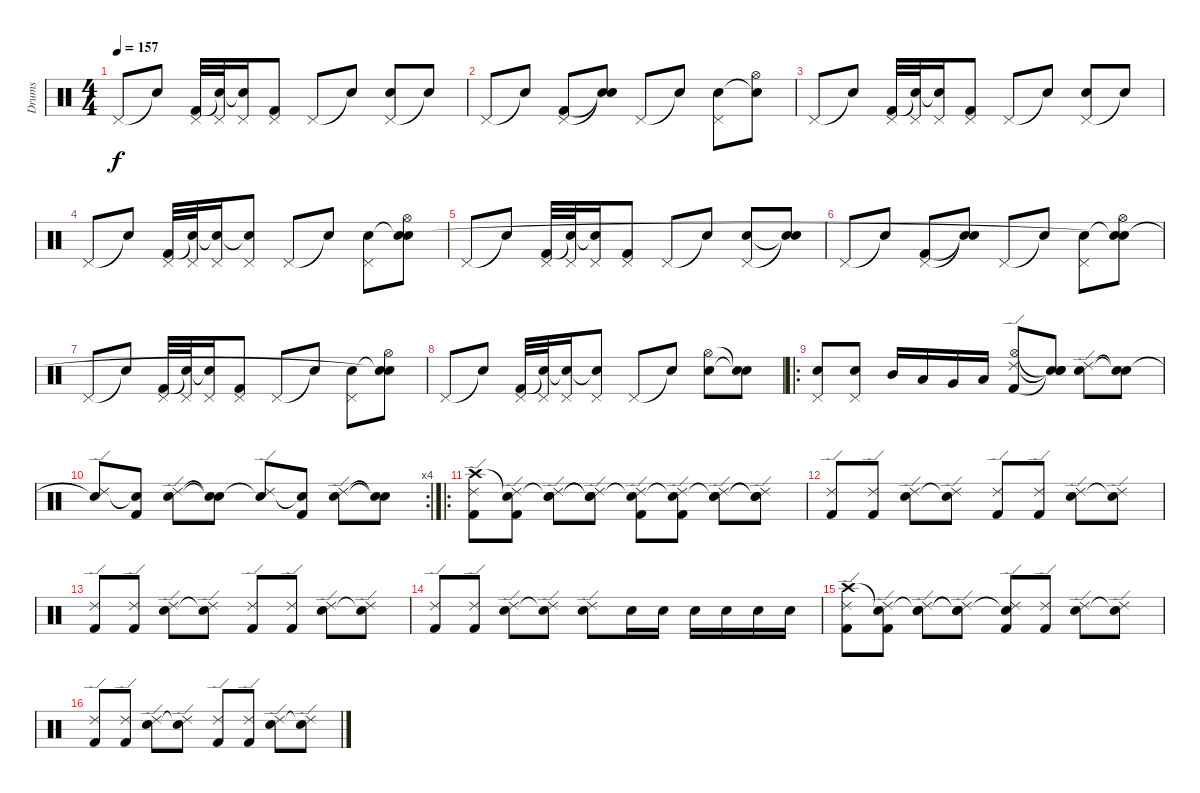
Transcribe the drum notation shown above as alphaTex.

\track ("Drums" "Drums") {instrument percussion}
\staff {score}
\articulation defaults
\ts (4 4)
\tempo 157
\clef neutral
\ks c "Pedal Hi-Hat (hit)".8{dy f} "Snare (hit)"{t}.8
("Pedal Hi-Hat (hit)" "Kick (hit) 2").32 ("Pedal Hi-Hat (hit)" "Snare (hit)"{t}).32 ("Pedal Hi-Hat (hit)" "Snare (hit)"{t}).16 ("Pedal Hi-Hat (hit)" "Kick (hit) 2").8 "Pedal Hi-Hat (hit)".8 "Snare (hit)"{t}.8 ("Pedal Hi-Hat (hit)" "Snare (hit) 2").8 "Snare (hit)"{t}.8 |
"Pedal Hi-Hat (hit)".8 "Snare (hit)"{t}.8 ("Pedal Hi-Hat (hit)" "Kick (hit) 2").8 ("Snare (hit)"{t} "Snare (hit)"{t}).8 "Pedal Hi-Hat (hit)".8 "Snare (hit)"{t}.8 ("Pedal Hi-Hat (hit)" "Snare (hit) 2").8 ("Hi-Hat (open)" "Snare (hit)"{t}).8 |
"Pedal Hi-Hat (hit)".8 "Snare (hit)"{t}.8 ("Pedal Hi-Hat (hit)" "Kick (hit) 2").32 ("Pedal Hi-Hat (hit)" "Snare (hit)"{t}).32 ("Pedal Hi-Hat (hit)" "Snare (hit)"{t}).16 ("Pedal Hi-Hat (hit)" "Kick (hit) 2").8 "Pedal Hi-Hat (hit)".8 "Snare (hit)"{t}.8 ("Pedal Hi-Hat (hit)" "Snare (hit) 2").8 "Snare (hit)"{t}.8 |
"Pedal Hi-Hat (hit)".8 "Snare (hit)"{t}.8 ("Pedal Hi-Hat (hit)" "Kick (hit) 2").32 ("Pedal Hi-Hat (hit)" "Snare (hit)"{t}).32 ("Pedal Hi-Hat (hit)" "Snare (hit)"{t}).16 ("Pedal Hi-Hat (hit)" "Snare (hit)"{t}).8 "Pedal Hi-Hat (hit)".8 "Snare (hit)"{t}.8 ("Pedal Hi-Hat (hit)" "Snare (hit) 2").8 ("Hi-Hat (open)" "Snare (hit)"{t} "Snare (hit)").8 |
"Pedal Hi-Hat (hit)".8 "Snare (hit)"{t}.8 ("Pedal Hi-Hat (hit)" "Kick (hit) 2").32 ("Pedal Hi-Hat (hit)" "Snare (hit)"{t}).32 ("Pedal Hi-Hat (hit)" "Snare (hit)"{t}).16 ("Pedal Hi-Hat (hit)" "Kick (hit) 2").8 "Pedal Hi-Hat (hit)".8 "Snare (hit)"{t}.8 ("Pedal Hi-Hat (hit)" "Snare (hit) 2").8 ("Snare (hit)"{t} "Snare (hit)"{t}).8 |
"Pedal Hi-Hat (hit)".8 "Snare (hit)"{t}.8 ("Pedal Hi-Hat (hit)" "Kick (hit) 2").8 ("Snare (hit)"{t} "Snare (hit)"{t}).8 "Pedal Hi-Hat (hit)".8 "Snare (hit)"{t}.8 ("Pedal Hi-Hat (hit)" "Snare (hit) 2").8 ("Hi-Hat (open)" "Snare (hit)"{t} "Snare (hit)"{t}).8 |
"Pedal Hi-Hat (hit)".8 "Snare (hit)"{t}.8 ("Pedal Hi-Hat (hit)" "Kick (hit) 2").32 ("Pedal Hi-Hat (hit)" "Snare (hit)"{t}).32 ("Pedal Hi-Hat (hit)" "Snare (hit)"{t}).16 ("Pedal Hi-Hat (hit)" "Kick (hit) 2").8 "Pedal Hi-Hat (hit)".8 "Snare (hit)"{t}.8 ("Pedal Hi-Hat (hit)" "Snare (hit) 2").8 ("Hi-Hat (open)" "Snare (hit)"{t} "Snare (hit)"{t}).8 |
"Pedal Hi-Hat (hit)".8 "Snare (hit)"{t}.8 ("Pedal Hi-Hat (hit)" "Kick (hit) 2").32 ("Pedal Hi-Hat (hit)" "Snare (hit)"{t}).32 ("Pedal Hi-Hat (hit)" "Snare (hit)"{t}).16 ("Pedal Hi-Hat (hit)" "Snare (hit)"{t}).8 "Pedal Hi-Hat (hit)".8 "Snare (hit)"{t}.8 ("Hi-Hat (open)" "Snare (hit) 2").8 ("Snare (hit)"{t} "Snare (hit)"{t}).8 |
\ro
("Pedal Hi-Hat (hit)" "Snare (hit) 2").8 ("Pedal Hi-Hat (hit)" "Snare (hit) 2").8 "Mid Tom (hit)".16 "Low Tom (hit)".16 "Very Low Tom (hit)".16 "Low Floor Tom (hit)".16 ("Hi-Hat (open)" "Ride (edge) 2" "Kick (hit) 2").8 ("Snare (hit)"{t} "Snare (hit)"{t} "Snare (hit)"{t}).8 ("Ride (edge) 2" "Snare (hit) 2").8 ("Snare (hit)"{t} "Snare (hit)"{t}).8 |
\rc 4
("Ride (edge) 2" "Snare (hit)"{t}).8 ("Snare (hit)"{t} "Kick (hit) 2").8 ("Ride (edge) 2" "Snare (hit) 2").8 ("Snare (hit)"{t} "Snare (hit)"{t}).8 ("Ride (edge) 2" "Snare (hit)"{t}).8 ("Snare (hit)"{t} "Kick (hit) 2").8 ("Ride (edge) 2" "Snare (hit) 2").8 ("Snare (hit)"{t} "Snare (hit)"{t}).8 |
\ro
("Crash high (hit)" "Ride (edge) 2" "Kick (hit) 2").8 ("Snare (hit)"{t} "Ride (edge) 2" "Kick (hit) 2").8 ("Snare (hit)"{t} "Ride (edge) 2" "Electric Snare (hit)").8 ("Snare (hit)"{t} "Ride (edge) 2" "Snare (hit)"{t}).8 ("Snare (hit)"{t} "Ride (edge) 2" "Kick (hit) 2").8 ("Snare (hit)"{t} "Ride (edge) 2" "Kick (hit) 2").8 ("Snare (hit)"{t} "Ride (edge) 2" "Electric Snare (hit)").8 ("Snare (hit)"{t} "Ride (edge) 2" "Snare (hit)"{t}).8 |
("Ride (edge) 2" "Kick (hit) 2").8 ("Ride (edge) 2" "Kick (hit) 2").8 ("Ride (edge) 2" "Electric Snare (hit)").8 ("Ride (edge) 2" "Snare (hit)"{t}).8 ("Ride (edge) 2" "Kick (hit) 2").8 ("Ride (edge) 2" "Kick (hit) 2").8 ("Ride (edge) 2" "Electric Snare (hit)").8 ("Ride (edge) 2" "Snare (hit)"{t}).8 |
("Ride (edge) 2" "Kick (hit) 2").8 ("Ride (edge) 2" "Kick (hit) 2").8 ("Ride (edge) 2" "Electric Snare (hit)").8 ("Ride (edge) 2" "Snare (hit)"{t}).8 ("Ride (edge) 2" "Kick (hit) 2").8 ("Ride (edge) 2" "Kick (hit) 2").8 ("Ride (edge) 2" "Electric Snare (hit)").8 ("Ride (edge) 2" "Snare (hit)"{t}).8 |
("Ride (edge) 2" "Kick (hit) 2").8 ("Ride (edge) 2" "Kick (hit) 2").8 ("Ride (edge) 2" "Electric Snare (hit)").8 ("Ride (edge) 2" "Snare (hit)"{t}).8 ("Ride (edge) 2" "Electric Snare (hit)").8 "Electric Snare (hit)".16 "Electric Snare (hit)".16 "Electric Snare (hit)".16 "Electric Snare (hit)".16 "Electric Snare (hit)".16 "Electric Snare (hit)".16 |
("Crash high (hit)" "Ride (edge) 2" "Kick (hit) 2").8 ("Snare (hit)"{t} "Ride (edge) 2" "Kick (hit) 2").8 ("Snare (hit)"{t} "Ride (edge) 2" "Electric Snare (hit)").8 ("Snare (hit)"{t} "Ride (edge) 2" "Snare (hit)"{t}).8 ("Snare (hit)"{t} "Ride (edge) 2" "Kick (hit) 2").8 ("Ride (edge) 2" "Kick (hit) 2").8 ("Ride (edge) 2" "Electric Snare (hit)").8 ("Ride (edge) 2" "Snare (hit)"{t}).8 |
("Ride (edge) 2" "Kick (hit) 2").8 ("Ride (edge) 2" "Kick (hit) 2").8 ("Ride (edge) 2" "Electric Snare (hit)").8 ("Ride (edge) 2" "Snare (hit)"{t}).8 ("Ride (edge) 2" "Kick (hit) 2").8 ("Ride (edge) 2" "Kick (hit) 2").8 ("Ride (edge) 2" "Electric Snare (hit)").8 ("Ride (edge) 2" "Snare (hit)"{t}).8
